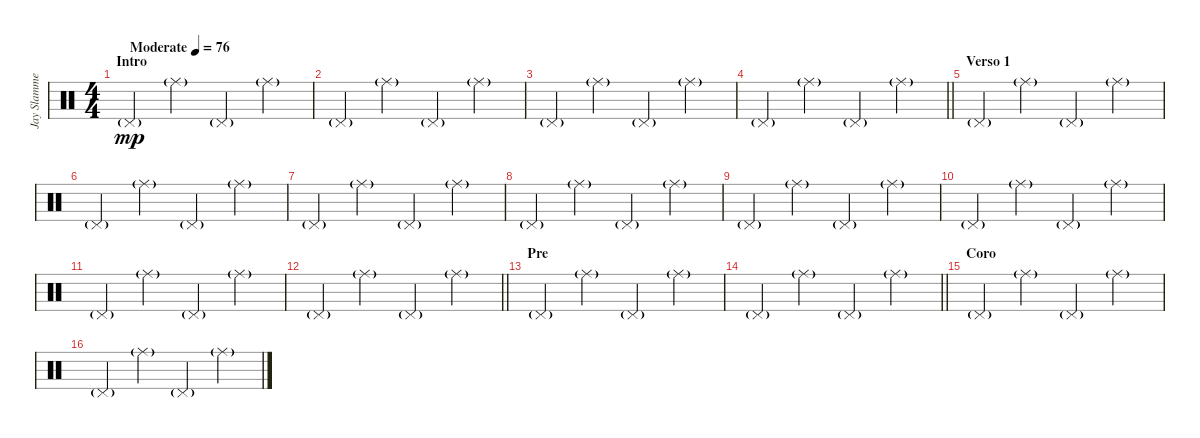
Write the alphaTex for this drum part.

\track ("Jay Slammer" "Jay Slamme") {instrument percussion}
\staff {score}
\articulation defaults
\ts (4 4)
\section ("" "Intro")
\tempo (76 "Moderate")
\clef neutral
\ks c "Pedal Hi-Hat (hit)"{g}.4{dy mp} "Ride (middle)"{g}.4 "Pedal Hi-Hat (hit)"{g}.4 "Ride (middle)"{g}.4
|
"Pedal Hi-Hat (hit)"{g}.4 "Ride (middle)"{g}.4 "Pedal Hi-Hat (hit)"{g}.4 "Ride (middle)"{g}.4 |
"Pedal Hi-Hat (hit)"{g}.4 "Ride (middle)"{g}.4 "Pedal Hi-Hat (hit)"{g}.4 "Ride (middle)"{g}.4 |
\barLineRight lightlight "Pedal Hi-Hat (hit)"{g}.4 "Ride (middle)"{g}.4 "Pedal Hi-Hat (hit)"{g}.4 "Ride (middle)"{g}.4
|
\section ("" "Verso 1")
"Pedal Hi-Hat (hit)"{g}.4 "Ride (middle)"{g}.4 "Pedal Hi-Hat (hit)"{g}.4 "Ride (middle)"{g}.4 |
"Pedal Hi-Hat (hit)"{g}.4 "Ride (middle)"{g}.4 "Pedal Hi-Hat (hit)"{g}.4 "Ride (middle)"{g}.4 |
"Pedal Hi-Hat (hit)"{g}.4 "Ride (middle)"{g}.4 "Pedal Hi-Hat (hit)"{g}.4 "Ride (middle)"{g}.4 |
"Pedal Hi-Hat (hit)"{g}.4 "Ride (middle)"{g}.4 "Pedal Hi-Hat (hit)"{g}.4 "Ride (middle)"{g}.4 |
"Pedal Hi-Hat (hit)"{g}.4 "Ride (middle)"{g}.4 "Pedal Hi-Hat (hit)"{g}.4 "Ride (middle)"{g}.4 |
"Pedal Hi-Hat (hit)"{g}.4 "Ride (middle)"{g}.4 "Pedal Hi-Hat (hit)"{g}.4 "Ride (middle)"{g}.4 |
"Pedal Hi-Hat (hit)"{g}.4 "Ride (middle)"{g}.4 "Pedal Hi-Hat (hit)"{g}.4 "Ride (middle)"{g}.4 |
\barLineRight lightlight "Pedal Hi-Hat (hit)"{g}.4 "Ride (middle)"{g}.4 "Pedal Hi-Hat (hit)"{g}.4 "Ride (middle)"{g}.4
|
\section ("" "Pre")
"Pedal Hi-Hat (hit)"{g}.4 "Ride (middle)"{g}.4 "Pedal Hi-Hat (hit)"{g}.4 "Ride (middle)"{g}.4 |
\barLineRight lightlight "Pedal Hi-Hat (hit)"{g}.4 "Ride (middle)"{g}.4 "Pedal Hi-Hat (hit)"{g}.4 "Ride (middle)"{g}.4
|
\section ("" "Coro")
"Pedal Hi-Hat (hit)"{g}.4 "Ride (middle)"{g}.4 "Pedal Hi-Hat (hit)"{g}.4 "Ride (middle)"{g}.4 |
"Pedal Hi-Hat (hit)"{g}.4 "Ride (middle)"{g}.4 "Pedal Hi-Hat (hit)"{g}.4 "Ride (middle)"{g}.4
